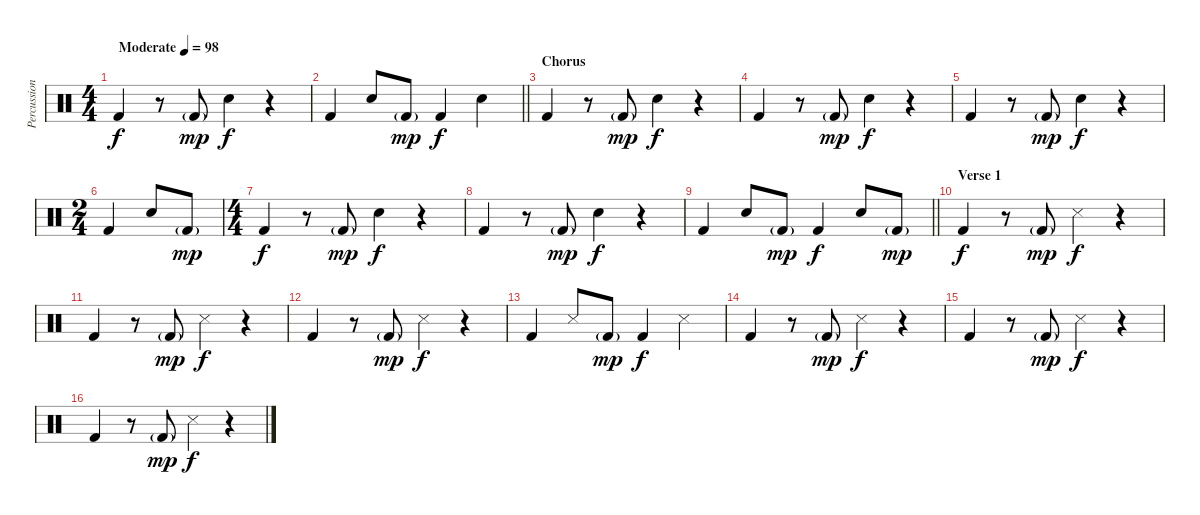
\track ("Percussion" "Percussion") {instrument percussion}
\staff {score}
\articulation defaults
\ts (4 4)
\tempo (98 "Moderate")
\clef neutral
\ks c "Kick (hit) 2".4{dy f}
r.8 "Kick (hit) 2"{g}.8{dy mp} "Snare (hit) 2".4{dy f} r.4 |
\barLineRight lightlight "Kick (hit) 2".4 "Snare (hit) 2".8 "Kick (hit) 2"{g}.8{dy mp} "Kick (hit) 2".4{dy f} "Snare (hit) 2".4
|
\section ("" "Chorus")
"Kick (hit) 2".4 r.8 "Kick (hit) 2"{g}.8{dy mp} "Snare (hit) 2".4{dy f} r.4 |
"Kick (hit) 2".4 r.8 "Kick (hit) 2"{g}.8{dy mp} "Snare (hit) 2".4{dy f} r.4 |
"Kick (hit) 2".4 r.8 "Kick (hit) 2"{g}.8{dy mp} "Snare (hit) 2".4{dy f} r.4 |
\ts (2 4)
"Kick (hit) 2".4 "Snare (hit) 2".8 "Kick (hit) 2"{g}.8{dy mp} |
\ts (4 4)
"Kick (hit) 2".4{dy f} r.8 "Kick (hit) 2"{g}.8{dy mp} "Snare (hit) 2".4{dy f} r.4 |
"Kick (hit) 2".4 r.8 "Kick (hit) 2"{g}.8{dy mp} "Snare (hit) 2".4{dy f} r.4 |
\barLineRight lightlight "Kick (hit) 2".4 "Snare (hit) 2".8 "Kick (hit) 2"{g}.8{dy mp} "Kick (hit) 2".4{dy f} "Snare (hit) 2".8 "Kick (hit) 2"{g}.8{dy mp}
|
\section ("" "Verse 1")
"Kick (hit) 2".4{dy f} r.8 "Kick (hit) 2"{g}.8{dy mp} "Snare (side stick) 3".4{dy f} r.4 |
"Kick (hit) 2".4 r.8 "Kick (hit) 2"{g}.8{dy mp} "Snare (side stick) 3".4{dy f} r.4 |
"Kick (hit) 2".4 r.8 "Kick (hit) 2"{g}.8{dy mp} "Snare (side stick) 3".4{dy f} r.4 |
"Kick (hit) 2".4 "Snare (side stick) 3".8 "Kick (hit) 2"{g}.8{dy mp} "Kick (hit) 2".4{dy f} "Snare (side stick) 3".4 |
"Kick (hit) 2".4 r.8 "Kick (hit) 2"{g}.8{dy mp} "Snare (side stick) 3".4{dy f} r.4 |
"Kick (hit) 2".4 r.8 "Kick (hit) 2"{g}.8{dy mp} "Snare (side stick) 3".4{dy f} r.4 |
"Kick (hit) 2".4 r.8 "Kick (hit) 2"{g}.8{dy mp} "Snare (side stick) 3".4{dy f} r.4
